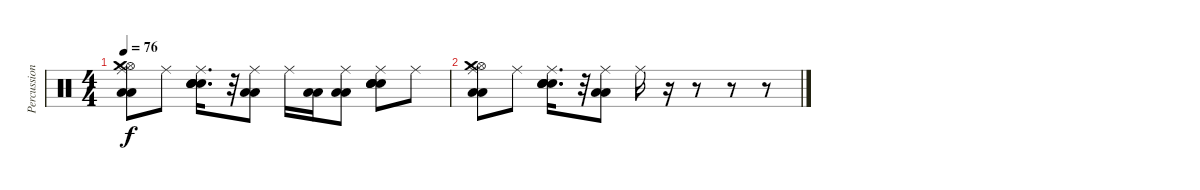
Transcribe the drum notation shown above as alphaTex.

\track ("Percussions" "Percussion") {instrument percussion}
\staff {score}
\articulation defaults
\ts (4 4)
\tempo 76
\clef neutral
\ks c
("Hi-Hat (open)" "Low Floor Tom (hit)" "Low Floor Tom (hit)" "Ride (middle)" "Crash medium (hit)").8{dy f} "Ride (middle)".8 ("Electric Snare (hit)" "Electric Snare (hit)" "Snare (hit) 2" "Ride (middle)" "Snare (hit) 2").16{d} r.32 ("Low Floor Tom (hit)" "Low Floor Tom (hit)" "Ride (middle)").8 "Ride (middle)".16 ("Low Floor Tom (hit)" "Low Floor Tom (hit)").16 ("Low Floor Tom (hit)" "Low Floor Tom (hit)" "Ride (middle)").8 ("Electric Snare (hit)" "Electric Snare (hit)" "Snare (hit) 2" "Ride (middle)" "Snare (hit) 2").8 "Ride (middle)".8 |
("Hi-Hat (open)" "Low Floor Tom (hit)" "Low Floor Tom (hit)" "Ride (middle)" "Crash medium (hit)").8 "Ride (middle)".8 ("Electric Snare (hit)" "Electric Snare (hit)" "Snare (hit) 2" "Ride (middle)" "Snare (hit) 2").16{d} r.32 ("Low Floor Tom (hit)" "Low Floor Tom (hit)" "Ride (middle)").8 "Ride (middle)".16 r.16 r.8 r.8 r.8
